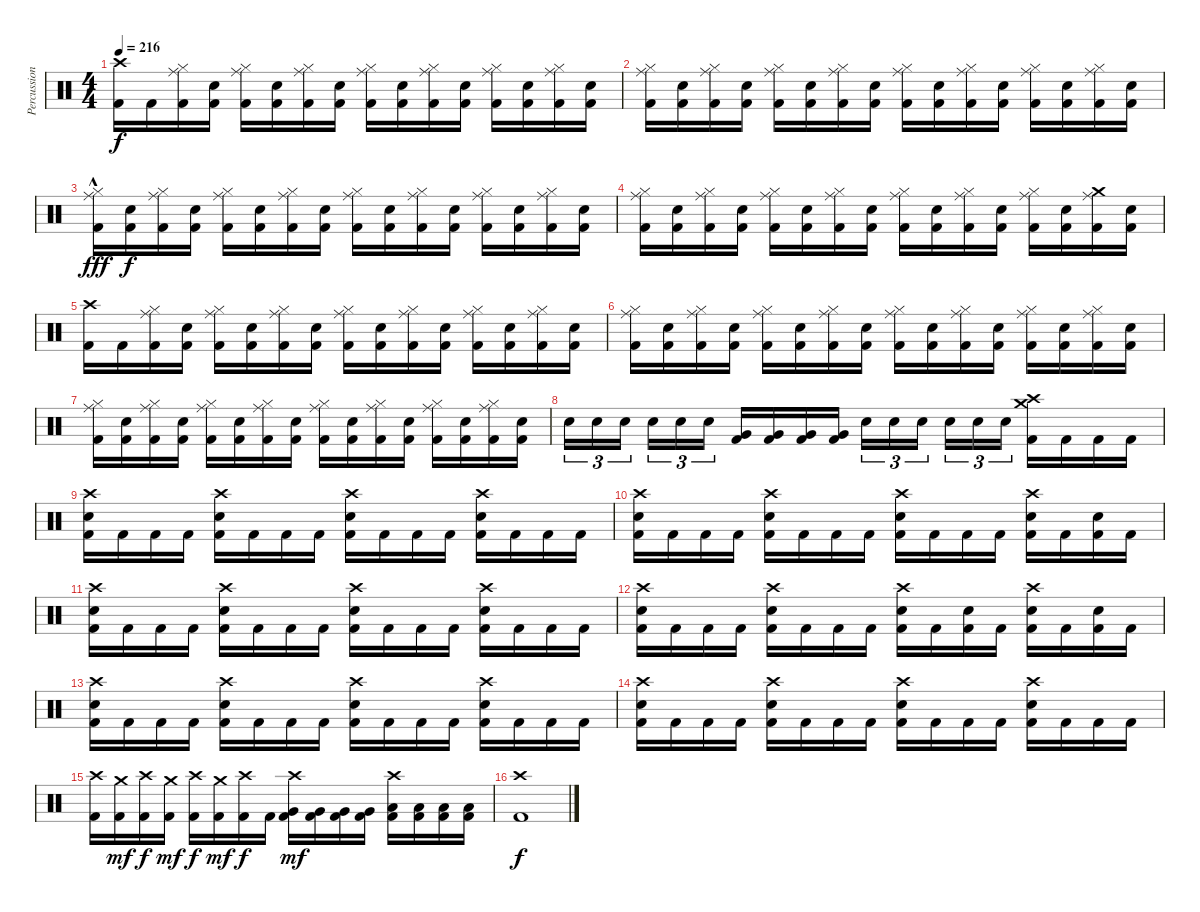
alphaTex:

\track ("Percussions" "Percussion") {instrument percussion}
\staff {score}
\articulation defaults
\ts (4 4)
\tempo 216
\clef neutral
\ks c
("Crash high (hit)" "Kick (hit) 2").16{dy f} "Kick (hit) 2".16 ("Hi-Hat (closed)" "Ride (middle)" "Kick (hit) 2").16 ("Electric Snare (hit)" "Kick (hit) 2").16 ("Hi-Hat (closed)" "Ride (middle)" "Kick (hit) 2").16 ("Electric Snare (hit)" "Kick (hit) 2").16 ("Hi-Hat (closed)" "Ride (middle)" "Kick (hit) 2").16 ("Electric Snare (hit)" "Kick (hit) 2").16 ("Hi-Hat (closed)" "Ride (middle)" "Kick (hit) 2").16 ("Electric Snare (hit)" "Kick (hit) 2").16 ("Hi-Hat (closed)" "Ride (middle)" "Kick (hit) 2").16 ("Electric Snare (hit)" "Kick (hit) 2").16 ("Hi-Hat (closed)" "Ride (middle)" "Kick (hit) 2").16 ("Electric Snare (hit)" "Kick (hit) 2").16 ("Hi-Hat (closed)" "Ride (middle)" "Kick (hit) 2").16 ("Electric Snare (hit)" "Kick (hit) 2").16 |
("Hi-Hat (closed)" "Ride (middle)" "Kick (hit) 2").16 ("Electric Snare (hit)" "Kick (hit) 2").16 ("Hi-Hat (closed)" "Ride (middle)" "Kick (hit) 2").16 ("Electric Snare (hit)" "Kick (hit) 2").16 ("Hi-Hat (closed)" "Ride (middle)" "Kick (hit) 2").16 ("Electric Snare (hit)" "Kick (hit) 2").16 ("Hi-Hat (closed)" "Ride (middle)" "Kick (hit) 2").16 ("Electric Snare (hit)" "Kick (hit) 2").16 ("Hi-Hat (closed)" "Ride (middle)" "Kick (hit) 2").16 ("Electric Snare (hit)" "Kick (hit) 2").16 ("Hi-Hat (closed)" "Ride (middle)" "Kick (hit) 2").16 ("Electric Snare (hit)" "Kick (hit) 2").16 ("Hi-Hat (closed)" "Ride (middle)" "Kick (hit) 2").16 ("Electric Snare (hit)" "Kick (hit) 2").16 ("Hi-Hat (closed)" "Ride (middle)" "Kick (hit) 2").16 ("Electric Snare (hit)" "Kick (hit) 2").16 |
("Hi-Hat (closed)" "Ride (middle)"{hac} "Kick (hit) 2").16{dy fff} ("Electric Snare (hit)" "Kick (hit) 2").16{dy f} ("Hi-Hat (closed)" "Ride (middle)" "Kick (hit) 2").16 ("Electric Snare (hit)" "Kick (hit) 2").16 ("Hi-Hat (closed)" "Ride (middle)" "Kick (hit) 2").16 ("Electric Snare (hit)" "Kick (hit) 2").16 ("Hi-Hat (closed)" "Ride (middle)" "Kick (hit) 2").16 ("Electric Snare (hit)" "Kick (hit) 2").16 ("Hi-Hat (closed)" "Ride (middle)" "Kick (hit) 2").16 ("Electric Snare (hit)" "Kick (hit) 2").16 ("Hi-Hat (closed)" "Ride (middle)" "Kick (hit) 2").16 ("Electric Snare (hit)" "Kick (hit) 2").16 ("Hi-Hat (closed)" "Ride (middle)" "Kick (hit) 2").16 ("Electric Snare (hit)" "Kick (hit) 2").16 ("Hi-Hat (closed)" "Ride (middle)" "Kick (hit) 2").16 ("Electric Snare (hit)" "Kick (hit) 2").16 |
("Hi-Hat (closed)" "Ride (middle)" "Kick (hit) 2").16 ("Electric Snare (hit)" "Kick (hit) 2").16 ("Hi-Hat (closed)" "Ride (middle)" "Kick (hit) 2").16 ("Electric Snare (hit)" "Kick (hit) 2").16 ("Hi-Hat (closed)" "Ride (middle)" "Kick (hit) 2").16 ("Electric Snare (hit)" "Kick (hit) 2").16 ("Hi-Hat (closed)" "Ride (middle)" "Kick (hit) 2").16 ("Electric Snare (hit)" "Kick (hit) 2").16 ("Hi-Hat (closed)" "Ride (middle)" "Kick (hit) 2").16 ("Electric Snare (hit)" "Kick (hit) 2").16 ("Hi-Hat (closed)" "Ride (middle)" "Kick (hit) 2").16 ("Electric Snare (hit)" "Kick (hit) 2").16 ("Hi-Hat (closed)" "Ride (middle)" "Kick (hit) 2").16 ("Electric Snare (hit)" "Kick (hit) 2").16 ("Crash medium (hit)" "Ride (middle)" "Kick (hit) 2").16 ("Electric Snare (hit)" "Kick (hit) 2").16 |
("Crash high (hit)" "Kick (hit) 2").16 "Kick (hit) 2".16 ("Hi-Hat (closed)" "Ride (middle)" "Kick (hit) 2").16 ("Electric Snare (hit)" "Kick (hit) 2").16 ("Hi-Hat (closed)" "Ride (middle)" "Kick (hit) 2").16 ("Electric Snare (hit)" "Kick (hit) 2").16 ("Hi-Hat (closed)" "Ride (middle)" "Kick (hit) 2").16 ("Electric Snare (hit)" "Kick (hit) 2").16 ("Hi-Hat (closed)" "Ride (middle)" "Kick (hit) 2").16 ("Electric Snare (hit)" "Kick (hit) 2").16 ("Hi-Hat (closed)" "Ride (middle)" "Kick (hit) 2").16 ("Electric Snare (hit)" "Kick (hit) 2").16 ("Hi-Hat (closed)" "Ride (middle)" "Kick (hit) 2").16 ("Electric Snare (hit)" "Kick (hit) 2").16 ("Hi-Hat (closed)" "Ride (middle)" "Kick (hit) 2").16 ("Electric Snare (hit)" "Kick (hit) 2").16 |
("Hi-Hat (closed)" "Ride (middle)" "Kick (hit) 2").16 ("Electric Snare (hit)" "Kick (hit) 2").16 ("Hi-Hat (closed)" "Ride (middle)" "Kick (hit) 2").16 ("Electric Snare (hit)" "Kick (hit) 2").16 ("Hi-Hat (closed)" "Ride (middle)" "Kick (hit) 2").16 ("Electric Snare (hit)" "Kick (hit) 2").16 ("Hi-Hat (closed)" "Ride (middle)" "Kick (hit) 2").16 ("Electric Snare (hit)" "Kick (hit) 2").16 ("Hi-Hat (closed)" "Ride (middle)" "Kick (hit) 2").16 ("Electric Snare (hit)" "Kick (hit) 2").16 ("Hi-Hat (closed)" "Ride (middle)" "Kick (hit) 2").16 ("Electric Snare (hit)" "Kick (hit) 2").16 ("Hi-Hat (closed)" "Ride (middle)" "Kick (hit) 2").16 ("Electric Snare (hit)" "Kick (hit) 2").16 ("Hi-Hat (closed)" "Ride (middle)" "Kick (hit) 2").16 ("Electric Snare (hit)" "Kick (hit) 2").16 |
("Hi-Hat (closed)" "Ride (middle)" "Kick (hit) 2").16 ("Electric Snare (hit)" "Kick (hit) 2").16 ("Hi-Hat (closed)" "Ride (middle)" "Kick (hit) 2").16 ("Electric Snare (hit)" "Kick (hit) 2").16 ("Hi-Hat (closed)" "Ride (middle)" "Kick (hit) 2").16 ("Electric Snare (hit)" "Kick (hit) 2").16 ("Hi-Hat (closed)" "Ride (middle)" "Kick (hit) 2").16 ("Electric Snare (hit)" "Kick (hit) 2").16 ("Hi-Hat (closed)" "Ride (middle)" "Kick (hit) 2").16 ("Electric Snare (hit)" "Kick (hit) 2").16 ("Hi-Hat (closed)" "Ride (middle)" "Kick (hit) 2").16 ("Electric Snare (hit)" "Kick (hit) 2").16 ("Hi-Hat (closed)" "Ride (middle)" "Kick (hit) 2").16 ("Electric Snare (hit)" "Kick (hit) 2").16 ("Hi-Hat (closed)" "Ride (middle)" "Kick (hit) 2").16 ("Electric Snare (hit)" "Kick (hit) 2").16 |
"Electric Snare (hit)".16{tu (3 2)} "Electric Snare (hit)".16{tu (3 2)} "Electric Snare (hit)".16{tu (3 2) beam splitsecondary} "Electric Snare (hit)".16{tu (3 2)} "Electric Snare (hit)".16{tu (3 2)} "Electric Snare (hit)".16{tu (3 2)} ("Very Low Tom (hit)" "Kick (hit) 2").16 ("Very Low Tom (hit)" "Kick (hit) 2").16 ("Very Low Tom (hit)" "Kick (hit) 2").16 ("Very Low Tom (hit)" "Kick (hit) 2").16 "Electric Snare (hit)".16{tu (3 2)} "Electric Snare (hit)".16{tu (3 2)} "Electric Snare (hit)".16{tu (3 2) beam splitsecondary} "Electric Snare (hit)".16{tu (3 2)} "Electric Snare (hit)".16{tu (3 2)} "Electric Snare (hit)".16{tu (3 2)} ("Crash high (hit)" "Crash medium (hit)" "Kick (hit) 2").16 "Kick (hit) 2".16 "Kick (hit) 2".16 "Kick (hit) 2".16 |
("Crash high (hit)" "Electric Snare (hit)" "Kick (hit) 2").16 "Kick (hit) 2".16 "Kick (hit) 2".16 "Kick (hit) 2".16 ("Crash high (hit)" "Electric Snare (hit)" "Kick (hit) 2").16 "Kick (hit) 2".16 "Kick (hit) 2".16 "Kick (hit) 2".16 ("Crash high (hit)" "Electric Snare (hit)" "Kick (hit) 2").16 "Kick (hit) 2".16 "Kick (hit) 2".16 "Kick (hit) 2".16 ("Crash high (hit)" "Electric Snare (hit)" "Kick (hit) 2").16 "Kick (hit) 2".16 "Kick (hit) 2".16 "Kick (hit) 2".16 |
("Crash high (hit)" "Electric Snare (hit)" "Kick (hit) 2").16 "Kick (hit) 2".16 "Kick (hit) 2".16 "Kick (hit) 2".16 ("Crash high (hit)" "Electric Snare (hit)" "Kick (hit) 2").16 "Kick (hit) 2".16 "Kick (hit) 2".16 "Kick (hit) 2".16 ("Crash high (hit)" "Electric Snare (hit)" "Kick (hit) 2").16 "Kick (hit) 2".16 "Kick (hit) 2".16 "Kick (hit) 2".16 ("Crash high (hit)" "Electric Snare (hit)" "Kick (hit) 2").16 "Kick (hit) 2".16 ("Electric Snare (hit)" "Kick (hit) 2").16 "Kick (hit) 2".16 |
("Crash high (hit)" "Electric Snare (hit)" "Kick (hit) 2").16 "Kick (hit) 2".16 "Kick (hit) 2".16 "Kick (hit) 2".16 ("Crash high (hit)" "Electric Snare (hit)" "Kick (hit) 2").16 "Kick (hit) 2".16 "Kick (hit) 2".16 "Kick (hit) 2".16 ("Crash high (hit)" "Electric Snare (hit)" "Kick (hit) 2").16 "Kick (hit) 2".16 "Kick (hit) 2".16 "Kick (hit) 2".16 ("Crash high (hit)" "Electric Snare (hit)" "Kick (hit) 2").16 "Kick (hit) 2".16 "Kick (hit) 2".16 "Kick (hit) 2".16 |
("Crash high (hit)" "Electric Snare (hit)" "Kick (hit) 2").16 "Kick (hit) 2".16 "Kick (hit) 2".16 "Kick (hit) 2".16 ("Crash high (hit)" "Electric Snare (hit)" "Kick (hit) 2").16 "Kick (hit) 2".16 "Kick (hit) 2".16 "Kick (hit) 2".16 ("Crash high (hit)" "Electric Snare (hit)" "Kick (hit) 2").16 "Kick (hit) 2".16 ("Electric Snare (hit)" "Kick (hit) 2").16 "Kick (hit) 2".16 ("Crash high (hit)" "Electric Snare (hit)" "Kick (hit) 2").16 "Kick (hit) 2".16 ("Electric Snare (hit)" "Kick (hit) 2").16 "Kick (hit) 2".16 |
("Crash high (hit)" "Electric Snare (hit)" "Kick (hit) 2").16 "Kick (hit) 2".16 "Kick (hit) 2".16 "Kick (hit) 2".16 ("Crash high (hit)" "Electric Snare (hit)" "Kick (hit) 2").16 "Kick (hit) 2".16 "Kick (hit) 2".16 "Kick (hit) 2".16 ("Crash high (hit)" "Electric Snare (hit)" "Kick (hit) 2").16 "Kick (hit) 2".16 "Kick (hit) 2".16 "Kick (hit) 2".16 ("Crash high (hit)" "Electric Snare (hit)" "Kick (hit) 2").16 "Kick (hit) 2".16 "Kick (hit) 2".16 "Kick (hit) 2".16 |
("Crash high (hit)" "Electric Snare (hit)" "Kick (hit) 2").16 "Kick (hit) 2".16 "Kick (hit) 2".16 "Kick (hit) 2".16 ("Crash high (hit)" "Electric Snare (hit)" "Kick (hit) 2").16 "Kick (hit) 2".16 "Kick (hit) 2".16 "Kick (hit) 2".16 ("Crash high (hit)" "Electric Snare (hit)" "Kick (hit) 2").16 "Kick (hit) 2".16 "Kick (hit) 2".16 "Kick (hit) 2".16 ("Crash high (hit)" "Electric Snare (hit)" "Kick (hit) 2").16 "Kick (hit) 2".16 "Kick (hit) 2".16 "Kick (hit) 2".16 |
("Crash high (hit)" "Kick (hit) 2").16 ("Crash medium (hit)" "Kick (hit) 2").16{dy mf} ("Crash high (hit)" "Kick (hit) 2").16{dy f} ("Crash medium (hit)" "Kick (hit) 2").16{dy mf} ("Crash high (hit)" "Kick (hit) 2").16{dy f} ("Crash medium (hit)" "Kick (hit) 2").16{dy mf} ("Crash high (hit)" "Kick (hit) 2").16{dy f} "Kick (hit) 2".16 ("Crash high (hit)" "Very Low Tom (hit)" "Kick (hit) 2").16{dy mf} ("Very Low Tom (hit)" "Kick (hit) 2").16 ("Very Low Tom (hit)" "Kick (hit) 2").16 ("Very Low Tom (hit)" "Kick (hit) 2").16 ("Crash high (hit)" "Low Floor Tom (hit)" "Kick (hit) 2").16 ("Low Floor Tom (hit)" "Kick (hit) 2").16 ("Low Floor Tom (hit)" "Kick (hit) 2").16 ("Low Floor Tom (hit)" "Kick (hit) 2").16 |
("Crash high (hit)" "Kick (hit) 2").1{dy f}
